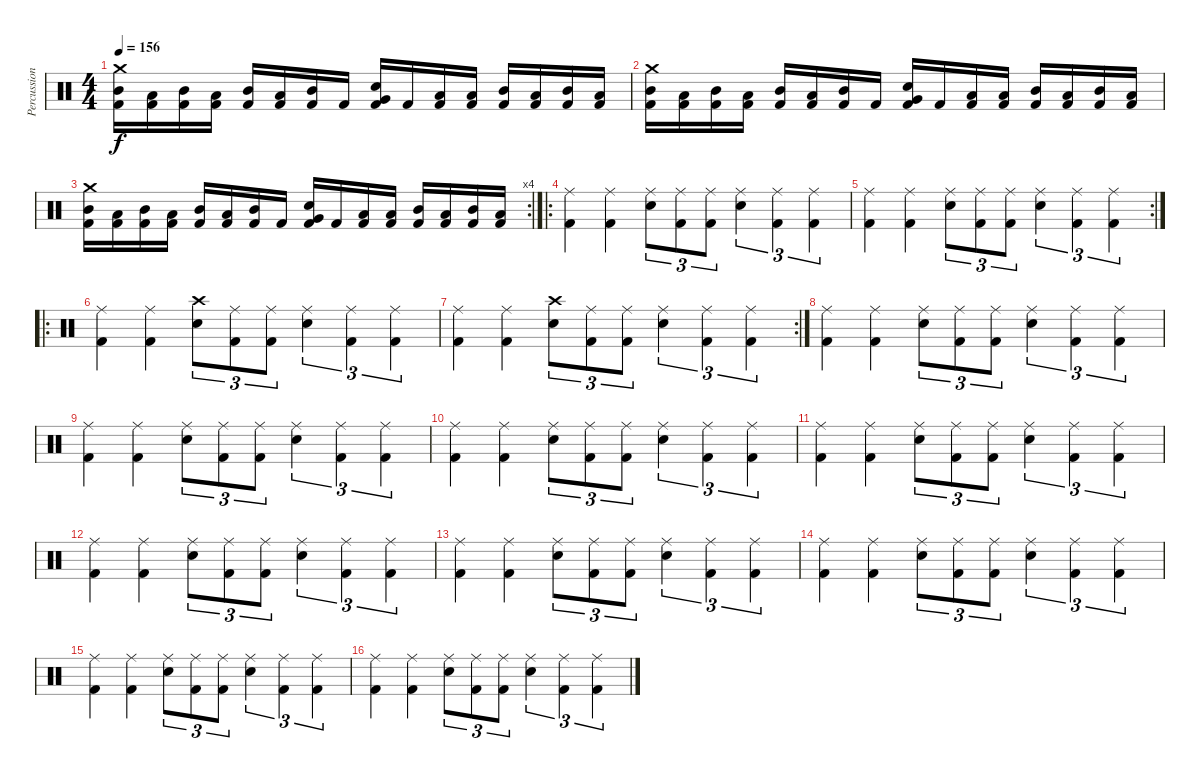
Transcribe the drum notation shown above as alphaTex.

\track ("Percussion" "Percussion") {instrument percussion}
\staff {score}
\articulation defaults
\ts (4 4)
\tempo 156
\clef neutral
\ks c
("Crash medium (hit)" "Mid Tom (hit)" "Kick (hit) 2").16{dy f} ("Low Tom (hit)" "Kick (hit) 2").16 ("Mid Tom (hit)" "Kick (hit) 2").16 ("Low Tom (hit)" "Kick (hit) 2").16 ("Mid Tom (hit)" "Kick (hit) 2").16 ("Low Tom (hit)" "Kick (hit) 2").16 ("Mid Tom (hit)" "Kick (hit) 2").16 "Kick (hit) 2".16 ("Electric Snare (hit)" "Very Low Tom (hit)" "Kick (hit) 2").16 "Kick (hit) 2".16 ("Low Floor Tom (hit)" "Kick (hit) 2").16 ("Low Tom (hit)" "Kick (hit) 2").16 ("Mid Tom (hit)" "Kick (hit) 2").16 ("Low Tom (hit)" "Kick (hit) 2").16 ("Mid Tom (hit)" "Kick (hit) 2").16 ("Low Tom (hit)" "Kick (hit) 2").16 |
("Crash medium (hit)" "Mid Tom (hit)" "Kick (hit) 2").16 ("Low Tom (hit)" "Kick (hit) 2").16 ("Mid Tom (hit)" "Kick (hit) 2").16 ("Low Tom (hit)" "Kick (hit) 2").16 ("Mid Tom (hit)" "Kick (hit) 2").16 ("Low Tom (hit)" "Kick (hit) 2").16 ("Mid Tom (hit)" "Kick (hit) 2").16 "Kick (hit) 2".16 ("Electric Snare (hit)" "Very Low Tom (hit)" "Kick (hit) 2").16 "Kick (hit) 2".16 ("Low Floor Tom (hit)" "Kick (hit) 2").16 ("Low Tom (hit)" "Kick (hit) 2").16 ("Mid Tom (hit)" "Kick (hit) 2").16 ("Low Tom (hit)" "Kick (hit) 2").16 ("Mid Tom (hit)" "Kick (hit) 2").16 ("Low Tom (hit)" "Kick (hit) 2").16 |
\rc 4
("Crash medium (hit)" "Mid Tom (hit)" "Kick (hit) 2").16 ("Low Tom (hit)" "Kick (hit) 2").16 ("Mid Tom (hit)" "Kick (hit) 2").16 ("Low Tom (hit)" "Kick (hit) 2").16 ("Mid Tom (hit)" "Kick (hit) 2").16 ("Low Tom (hit)" "Kick (hit) 2").16 ("Mid Tom (hit)" "Kick (hit) 2").16 "Kick (hit) 2".16 ("Electric Snare (hit)" "Very Low Tom (hit)" "Kick (hit) 2").16 "Kick (hit) 2".16 ("Low Floor Tom (hit)" "Kick (hit) 2").16 ("Low Tom (hit)" "Kick (hit) 2").16 ("Mid Tom (hit)" "Kick (hit) 2").16 ("Low Tom (hit)" "Kick (hit) 2").16 ("Mid Tom (hit)" "Kick (hit) 2").16 ("Low Tom (hit)" "Kick (hit) 2").16 |
\ro
("Ride (middle)" "Kick (hit) 2").4 ("Ride (middle)" "Kick (hit) 2").4 ("Ride (middle)" "Electric Snare (hit)").8{tu (3 2)} ("Ride (middle)" "Kick (hit) 2").8{tu (3 2)} ("Ride (middle)" "Kick (hit) 2").8{tu (3 2)} ("Ride (middle)" "Electric Snare (hit)").4{tu (3 2)} ("Ride (middle)" "Kick (hit) 2").4{tu (3 2)} ("Ride (middle)" "Kick (hit) 2").4{tu (3 2)} |
\rc 2
("Ride (middle)" "Kick (hit) 2").4 ("Ride (middle)" "Kick (hit) 2").4 ("Ride (middle)" "Electric Snare (hit)").8{tu (3 2)} ("Ride (middle)" "Kick (hit) 2").8{tu (3 2)} ("Ride (middle)" "Kick (hit) 2").8{tu (3 2)} ("Ride (middle)" "Electric Snare (hit)").4{tu (3 2)} ("Ride (middle)" "Kick (hit) 2").4{tu (3 2)} ("Ride (middle)" "Kick (hit) 2").4{tu (3 2)} |
\ro
("Ride (middle)" "Kick (hit) 2").4 ("Ride (middle)" "Kick (hit) 2").4 ("Crash high (hit)" "Electric Snare (hit)").8{tu (3 2)} ("Ride (middle)" "Kick (hit) 2").8{tu (3 2)} ("Ride (middle)" "Kick (hit) 2").8{tu (3 2)} ("Ride (middle)" "Electric Snare (hit)").4{tu (3 2)} ("Ride (middle)" "Kick (hit) 2").4{tu (3 2)} ("Ride (middle)" "Kick (hit) 2").4{tu (3 2)} |
\rc 2
("Ride (middle)" "Kick (hit) 2").4 ("Ride (middle)" "Kick (hit) 2").4 ("Crash high (hit)" "Electric Snare (hit)").8{tu (3 2)} ("Ride (middle)" "Kick (hit) 2").8{tu (3 2)} ("Ride (middle)" "Kick (hit) 2").8{tu (3 2)} ("Ride (middle)" "Electric Snare (hit)").4{tu (3 2)} ("Ride (middle)" "Kick (hit) 2").4{tu (3 2)} ("Ride (middle)" "Kick (hit) 2").4{tu (3 2)} |
("Ride (middle)" "Kick (hit) 2").4 ("Ride (middle)" "Kick (hit) 2").4 ("Ride (middle)" "Electric Snare (hit)").8{tu (3 2)} ("Ride (middle)" "Kick (hit) 2").8{tu (3 2)} ("Ride (middle)" "Kick (hit) 2").8{tu (3 2)} ("Ride (middle)" "Electric Snare (hit)").4{tu (3 2)} ("Ride (middle)" "Kick (hit) 2").4{tu (3 2)} ("Ride (middle)" "Kick (hit) 2").4{tu (3 2)} |
("Ride (middle)" "Kick (hit) 2").4 ("Ride (middle)" "Kick (hit) 2").4 ("Ride (middle)" "Electric Snare (hit)").8{tu (3 2)} ("Ride (middle)" "Kick (hit) 2").8{tu (3 2)} ("Ride (middle)" "Kick (hit) 2").8{tu (3 2)} ("Ride (middle)" "Electric Snare (hit)").4{tu (3 2)} ("Ride (middle)" "Kick (hit) 2").4{tu (3 2)} ("Ride (middle)" "Kick (hit) 2").4{tu (3 2)} |
("Ride (middle)" "Kick (hit) 2").4 ("Ride (middle)" "Kick (hit) 2").4 ("Ride (middle)" "Electric Snare (hit)").8{tu (3 2)} ("Ride (middle)" "Kick (hit) 2").8{tu (3 2)} ("Ride (middle)" "Kick (hit) 2").8{tu (3 2)} ("Ride (middle)" "Electric Snare (hit)").4{tu (3 2)} ("Ride (middle)" "Kick (hit) 2").4{tu (3 2)} ("Ride (middle)" "Kick (hit) 2").4{tu (3 2)} |
("Ride (middle)" "Kick (hit) 2").4 ("Ride (middle)" "Kick (hit) 2").4 ("Ride (middle)" "Electric Snare (hit)").8{tu (3 2)} ("Ride (middle)" "Kick (hit) 2").8{tu (3 2)} ("Ride (middle)" "Kick (hit) 2").8{tu (3 2)} ("Ride (middle)" "Electric Snare (hit)").4{tu (3 2)} ("Ride (middle)" "Kick (hit) 2").4{tu (3 2)} ("Ride (middle)" "Kick (hit) 2").4{tu (3 2)} |
("Ride (middle)" "Kick (hit) 2").4 ("Ride (middle)" "Kick (hit) 2").4 ("Ride (middle)" "Electric Snare (hit)").8{tu (3 2)} ("Ride (middle)" "Kick (hit) 2").8{tu (3 2)} ("Ride (middle)" "Kick (hit) 2").8{tu (3 2)} ("Ride (middle)" "Electric Snare (hit)").4{tu (3 2)} ("Ride (middle)" "Kick (hit) 2").4{tu (3 2)} ("Ride (middle)" "Kick (hit) 2").4{tu (3 2)} |
("Ride (middle)" "Kick (hit) 2").4 ("Ride (middle)" "Kick (hit) 2").4 ("Ride (middle)" "Electric Snare (hit)").8{tu (3 2)} ("Ride (middle)" "Kick (hit) 2").8{tu (3 2)} ("Ride (middle)" "Kick (hit) 2").8{tu (3 2)} ("Ride (middle)" "Electric Snare (hit)").4{tu (3 2)} ("Ride (middle)" "Kick (hit) 2").4{tu (3 2)} ("Ride (middle)" "Kick (hit) 2").4{tu (3 2)} |
("Ride (middle)" "Kick (hit) 2").4 ("Ride (middle)" "Kick (hit) 2").4 ("Ride (middle)" "Electric Snare (hit)").8{tu (3 2)} ("Ride (middle)" "Kick (hit) 2").8{tu (3 2)} ("Ride (middle)" "Kick (hit) 2").8{tu (3 2)} ("Ride (middle)" "Electric Snare (hit)").4{tu (3 2)} ("Ride (middle)" "Kick (hit) 2").4{tu (3 2)} ("Ride (middle)" "Kick (hit) 2").4{tu (3 2)} |
("Ride (middle)" "Kick (hit) 2").4 ("Ride (middle)" "Kick (hit) 2").4 ("Ride (middle)" "Electric Snare (hit)").8{tu (3 2)} ("Ride (middle)" "Kick (hit) 2").8{tu (3 2)} ("Ride (middle)" "Kick (hit) 2").8{tu (3 2)} ("Ride (middle)" "Electric Snare (hit)").4{tu (3 2)} ("Ride (middle)" "Kick (hit) 2").4{tu (3 2)} ("Ride (middle)" "Kick (hit) 2").4{tu (3 2)} |
("Ride (middle)" "Kick (hit) 2").4 ("Ride (middle)" "Kick (hit) 2").4 ("Ride (middle)" "Electric Snare (hit)").8{tu (3 2)} ("Ride (middle)" "Kick (hit) 2").8{tu (3 2)} ("Ride (middle)" "Kick (hit) 2").8{tu (3 2)} ("Ride (middle)" "Electric Snare (hit)").4{tu (3 2)} ("Ride (middle)" "Kick (hit) 2").4{tu (3 2)} ("Ride (middle)" "Kick (hit) 2").4{tu (3 2)}
